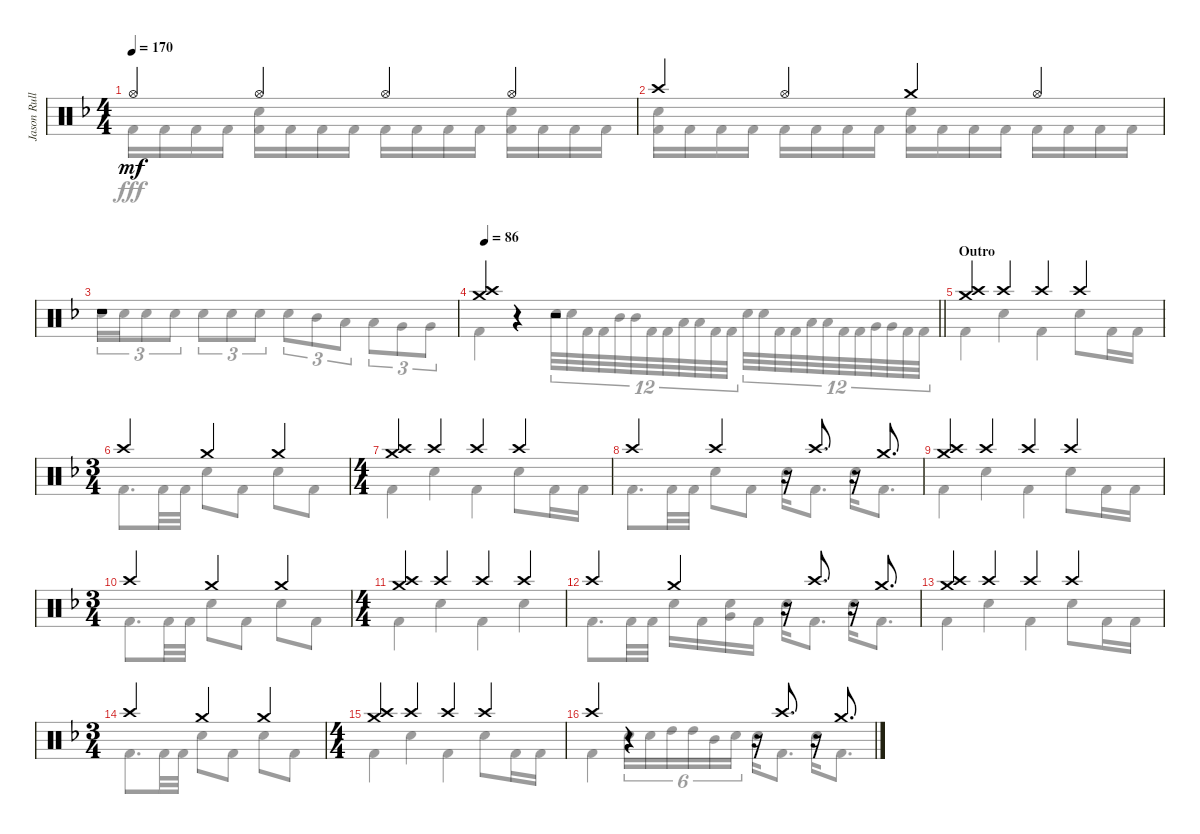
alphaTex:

\track ("Jason Rullo Drums" "Jason Rull") {instrument percussion}
\staff {score}
\articulation defaults
\voice
\ts (4 4)
\tempo 170
\clef neutral
\ks dminor "Hi-Hat (open)".4{dy mf} "Hi-Hat (open)".4 "Hi-Hat (open)".4 "Hi-Hat (open)".4
|
"Crash high (hit)".4 "Hi-Hat (open)".4 "Crash medium (hit)".4 "Hi-Hat (open)".4 |
r.1 |
\tempo 86
\barLineRight lightlight
("Crash high (hit)" "Crash medium (hit)").4 r.4 r.2 |
\section ("" "Outro")
("Crash high (hit)" "Crash medium (hit)").4 "Crash high (hit)".4 "Crash high (hit)".4 "Crash high (hit)".4 |
\ts (3 4)
"Crash high (hit)".4 "Crash medium (hit)".4 "Crash medium (hit)".4 |
\ts (4 4)
("Crash high (hit)" "Crash medium (hit)").4 "Crash high (hit)".4 "Crash high (hit)".4 "Crash high (hit)".4 |
"Crash high (hit)".4 "Crash high (hit)".4 r.16 "Crash high (hit)".8{d} r.16 "Crash medium (hit)".8{d} |
("Crash high (hit)" "Crash medium (hit)").4 "Crash high (hit)".4 "Crash high (hit)".4 "Crash high (hit)".4 |
\ts (3 4)
"Crash high (hit)".4 "Crash medium (hit)".4 "Crash medium (hit)".4 |
\ts (4 4)
("Crash high (hit)" "Crash medium (hit)").4 "Crash high (hit)".4 "Crash high (hit)".4 "Crash high (hit)".4 |
"Crash high (hit)".4 "Crash medium (hit)".4 r.16 "Crash high (hit)".8{d} r.16 "Crash medium (hit)".8{d} |
("Crash high (hit)" "Crash medium (hit)").4 "Crash high (hit)".4 "Crash high (hit)".4 "Crash high (hit)".4 |
\ts (3 4)
"Crash high (hit)".4 "Crash medium (hit)".4 "Crash medium (hit)".4 |
\ts (4 4)
("Crash high (hit)" "Crash medium (hit)").4 "Crash high (hit)".4 "Crash high (hit)".4 "Crash high (hit)".4 |
"Crash high (hit)".4 r.4 r.16 "Crash high (hit)".8{d} r.16 "Crash medium (hit)".8{d}
\voice
\clef neutral
\ottava regular
\simile none
\ks dminor "Kick (hit) 2".16{dy fff} "Kick (hit) 2".16 "Kick (hit) 2".16 "Kick (hit) 2".16
("Electric Snare (hit)" "Kick (hit) 2").16 "Kick (hit) 2".16 "Kick (hit) 2".16 "Kick (hit) 2".16 "Kick (hit) 2".16 "Kick (hit) 2".16 "Kick (hit) 2".16 "Kick (hit) 2".16 ("Electric Snare (hit)" "Kick (hit) 2").16 "Kick (hit) 2".16 "Kick (hit) 2".16 "Kick (hit) 2".16 |
("Electric Snare (hit)" "Kick (hit) 2").16 "Kick (hit) 2".16 "Kick (hit) 2".16 "Kick (hit) 2".16 "Kick (hit) 2".16 "Kick (hit) 2".16 "Kick (hit) 2".16 "Kick (hit) 2".16 ("Electric Snare (hit)" "Kick (hit) 2").16 "Kick (hit) 2".16 "Kick (hit) 2".16 "Kick (hit) 2".16 "Kick (hit) 2".16 "Kick (hit) 2".16 "Kick (hit) 2".16 "Kick (hit) 2".16 |
"Electric Snare (hit)".16{tu (3 2)} "Electric Snare (hit)".16{tu (3 2)} "Electric Snare (hit)".8{tu (3 2)} "Electric Snare (hit)".8{tu (3 2)} "Electric Snare (hit)".8{tu (3 2)} "Electric Snare (hit)".8{tu (3 2)} "Electric Snare (hit)".8{tu (3 2)} "Electric Snare (hit)".8{tu (3 2)} "Mid Tom (hit)".8{tu (3 2)} "Low Tom (hit)".8{tu (3 2)} "Low Tom (hit)".8{tu (3 2)} "Very Low Tom (hit)".8{tu (3 2)} "Very Low Tom (hit)".8{tu (3 2)} |
\barLineRight lightlight "Kick (hit) 2".4
r.4 "Electric Snare (hit)".32{tu (12 8)} "Electric Snare (hit)".32{tu (12 8)} "Kick (hit) 2".32{tu (12 8)} "Kick (hit) 2".32{tu (12 8)} "Mid Tom (hit)".32{tu (12 8)} "Mid Tom (hit)".32{tu (12 8)} "Kick (hit) 2".32{tu (12 8)} "Kick (hit) 2".32{tu (12 8)} "Low Tom (hit)".32{tu (12 8)} "Low Tom (hit)".32{tu (12 8)} "Kick (hit) 2".32{tu (12 8)} "Kick (hit) 2".32{tu (12 8)} "Electric Snare (hit)".32{tu (12 8)} "Electric Snare (hit)".32{tu (12 8)} "Kick (hit) 2".32{tu (12 8)} "Kick (hit) 2".32{tu (12 8)} "Low Tom (hit)".32{tu (12 8)} "Low Tom (hit)".32{tu (12 8)} "Kick (hit) 2".32{tu (12 8)} "Kick (hit) 2".32{tu (12 8)} "Very Low Tom (hit)".32{tu (12 8)} "Very Low Tom (hit)".32{tu (12 8)} "Kick (hit) 2".32{tu (12 8)} "Kick (hit) 2".32{tu (12 8)} |
"Kick (hit) 2".4 "Electric Snare (hit)".4 "Kick (hit) 2".4 "Electric Snare (hit)".8 "Kick (hit) 2".16 "Kick (hit) 2".16 |
"Kick (hit) 2".8{d} "Kick (hit) 2".32 "Kick (hit) 2".32 "Electric Snare (hit)".8 "Kick (hit) 2".8 "Electric Snare (hit)".8 "Kick (hit) 2".8 |
"Kick (hit) 2".4 "Electric Snare (hit)".4 "Kick (hit) 2".4 "Electric Snare (hit)".8 "Kick (hit) 2".16 "Kick (hit) 2".16 |
"Kick (hit) 2".8{d} "Kick (hit) 2".32 "Kick (hit) 2".32 "Electric Snare (hit)".8 "Kick (hit) 2".8 "Electric Snare (hit)".16 "Kick (hit) 2".8{d} "Electric Snare (hit)".16 "Kick (hit) 2".8{d} |
"Kick (hit) 2".4 "Electric Snare (hit)".4 "Kick (hit) 2".4 "Electric Snare (hit)".8 "Kick (hit) 2".16 "Kick (hit) 2".16 |
"Kick (hit) 2".8{d} "Kick (hit) 2".32 "Kick (hit) 2".32 "Electric Snare (hit)".8 "Kick (hit) 2".8 "Electric Snare (hit)".8 "Kick (hit) 2".8 |
"Kick (hit) 2".4 "Electric Snare (hit)".4 "Kick (hit) 2".4 "Electric Snare (hit)".4 |
"Kick (hit) 2".8{d} "Kick (hit) 2".32 "Kick (hit) 2".32 "Electric Snare (hit)".16 "Kick (hit) 2".16 ("Electric Snare (hit)" "Very Low Tom (hit)").16 "Kick (hit) 2".16 "Electric Snare (hit)".16 "Kick (hit) 2".8{d} "Electric Snare (hit)".16 "Kick (hit) 2".8{d} |
"Kick (hit) 2".4 "Electric Snare (hit)".4 "Kick (hit) 2".4 "Electric Snare (hit)".8 "Kick (hit) 2".16 "Kick (hit) 2".16 |
"Kick (hit) 2".8{d} "Kick (hit) 2".32 "Kick (hit) 2".32 "Electric Snare (hit)".8 "Kick (hit) 2".8 "Electric Snare (hit)".8 "Kick (hit) 2".8 |
"Kick (hit) 2".4 "Electric Snare (hit)".4 "Kick (hit) 2".4 "Electric Snare (hit)".8 "Kick (hit) 2".16 "Kick (hit) 2".16 |
"Kick (hit) 2".4 "Electric Snare (hit)".16{tu (6 4)} "Electric Snare (hit)".16{tu (6 4)} "High Tom (hit)".16{tu (6 4)} "High Tom (hit)".16{tu (6 4)} "Mid Tom (hit)".16{tu (6 4)} "Electric Snare (hit)".16{tu (6 4)} "Electric Snare (hit)".16 "Kick (hit) 2".8{d} "Electric Snare (hit)".16 "Kick (hit) 2".8{d}
